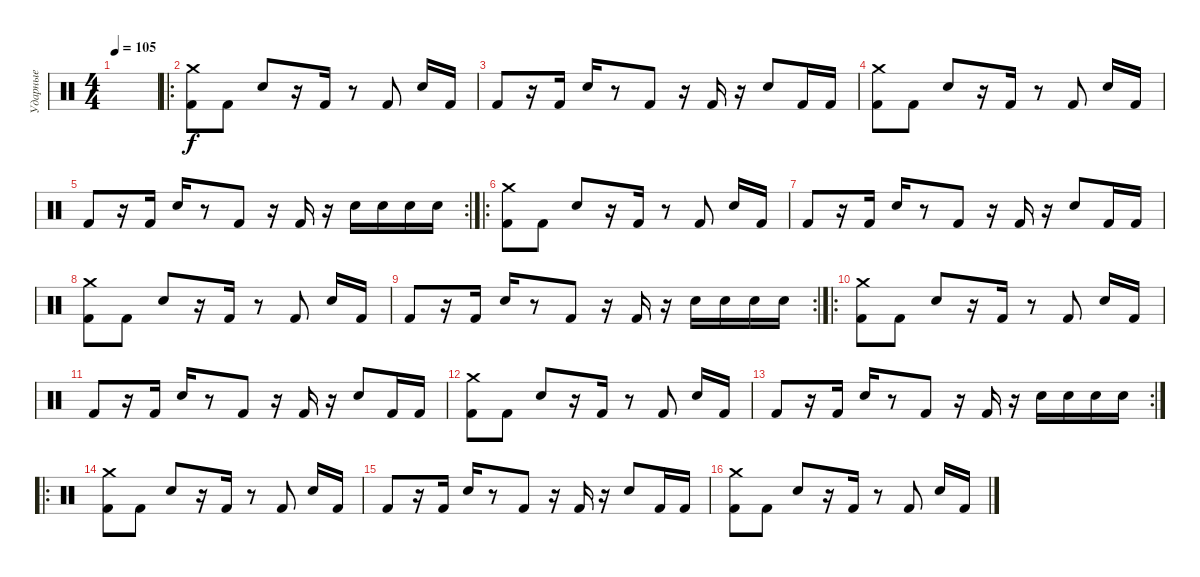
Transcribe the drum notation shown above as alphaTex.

\track ("Ударные" "Ударные") {instrument percussion}
\staff {score}
\articulation defaults
\ts (4 4)
\tempo 105
\clef neutral
\ks c
|
\ro
("Crash medium (hit)" "Kick (hit) 2").8 "Kick (hit) 2".8 "Electric Snare (hit)".8 r.16 "Kick (hit) 2".16 r.8 "Kick (hit) 2".8 "Electric Snare (hit)".16 "Kick (hit) 2".16 |
"Kick (hit) 2".8 r.16 "Kick (hit) 2".16 "Electric Snare (hit)".16 r.8 "Kick (hit) 2".8 r.16 "Kick (hit) 2".16 r.16 "Electric Snare (hit)".8 "Kick (hit) 2".16 "Kick (hit) 2".16 |
("Crash medium (hit)" "Kick (hit) 2").8 "Kick (hit) 2".8 "Electric Snare (hit)".8 r.16 "Kick (hit) 2".16 r.8 "Kick (hit) 2".8 "Electric Snare (hit)".16 "Kick (hit) 2".16 |
\rc 2 "Kick (hit) 2".8
r.16 "Kick (hit) 2".16 "Electric Snare (hit)".16 r.8 "Kick (hit) 2".8 r.16 "Kick (hit) 2".16 r.16 "Electric Snare (hit)".16 "Electric Snare (hit)".16 "Electric Snare (hit)".16 "Electric Snare (hit)".16 |
\ro
("Crash medium (hit)" "Kick (hit) 2").8 "Kick (hit) 2".8 "Electric Snare (hit)".8 r.16 "Kick (hit) 2".16 r.8 "Kick (hit) 2".8 "Electric Snare (hit)".16 "Kick (hit) 2".16 |
"Kick (hit) 2".8 r.16 "Kick (hit) 2".16 "Electric Snare (hit)".16 r.8 "Kick (hit) 2".8 r.16 "Kick (hit) 2".16 r.16 "Electric Snare (hit)".8 "Kick (hit) 2".16 "Kick (hit) 2".16 |
("Crash medium (hit)" "Kick (hit) 2").8 "Kick (hit) 2".8 "Electric Snare (hit)".8 r.16 "Kick (hit) 2".16 r.8 "Kick (hit) 2".8 "Electric Snare (hit)".16 "Kick (hit) 2".16 |
\rc 2 "Kick (hit) 2".8
r.16 "Kick (hit) 2".16 "Electric Snare (hit)".16 r.8 "Kick (hit) 2".8 r.16 "Kick (hit) 2".16 r.16 "Electric Snare (hit)".16 "Electric Snare (hit)".16 "Electric Snare (hit)".16 "Electric Snare (hit)".16 |
\ro
("Crash medium (hit)" "Kick (hit) 2").8 "Kick (hit) 2".8 "Electric Snare (hit)".8 r.16 "Kick (hit) 2".16 r.8 "Kick (hit) 2".8 "Electric Snare (hit)".16 "Kick (hit) 2".16 |
"Kick (hit) 2".8 r.16 "Kick (hit) 2".16 "Electric Snare (hit)".16 r.8 "Kick (hit) 2".8 r.16 "Kick (hit) 2".16 r.16 "Electric Snare (hit)".8 "Kick (hit) 2".16 "Kick (hit) 2".16 |
("Crash medium (hit)" "Kick (hit) 2").8 "Kick (hit) 2".8 "Electric Snare (hit)".8 r.16 "Kick (hit) 2".16 r.8 "Kick (hit) 2".8 "Electric Snare (hit)".16 "Kick (hit) 2".16 |
\rc 2 "Kick (hit) 2".8
r.16 "Kick (hit) 2".16 "Electric Snare (hit)".16 r.8 "Kick (hit) 2".8 r.16 "Kick (hit) 2".16 r.16 "Electric Snare (hit)".16 "Electric Snare (hit)".16 "Electric Snare (hit)".16 "Electric Snare (hit)".16 |
\ro
("Crash medium (hit)" "Kick (hit) 2").8 "Kick (hit) 2".8 "Electric Snare (hit)".8 r.16 "Kick (hit) 2".16 r.8 "Kick (hit) 2".8 "Electric Snare (hit)".16 "Kick (hit) 2".16 |
"Kick (hit) 2".8 r.16 "Kick (hit) 2".16 "Electric Snare (hit)".16 r.8 "Kick (hit) 2".8 r.16 "Kick (hit) 2".16 r.16 "Electric Snare (hit)".8 "Kick (hit) 2".16 "Kick (hit) 2".16 |
("Crash medium (hit)" "Kick (hit) 2").8 "Kick (hit) 2".8 "Electric Snare (hit)".8 r.16 "Kick (hit) 2".16 r.8 "Kick (hit) 2".8 "Electric Snare (hit)".16 "Kick (hit) 2".16
